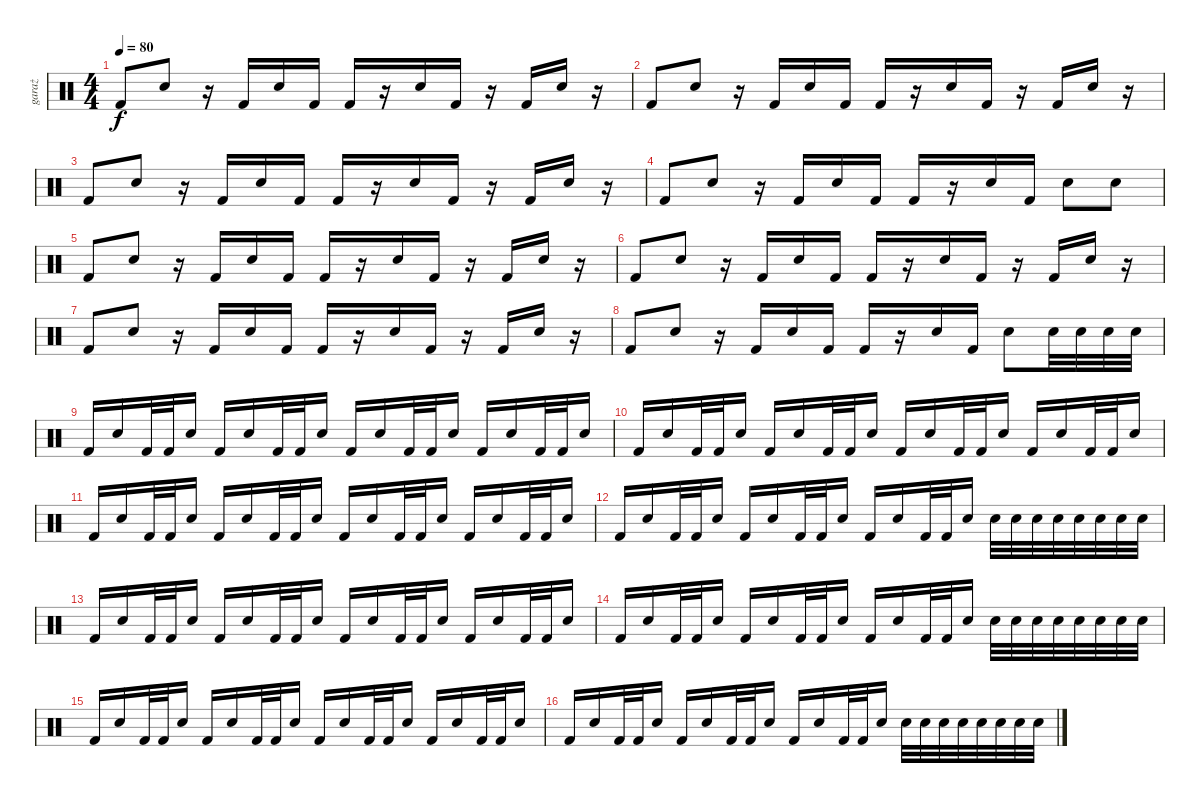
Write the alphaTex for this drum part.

\track ("garaż" "garaż") {instrument percussion}
\staff {score}
\articulation defaults
\ts (4 4)
\tempo 80
\clef neutral
\ks c "Kick (hit) 2".8{dy f} "Snare (hit) 2".8
r.16 "Kick (hit) 2".16 "Snare (hit) 2".16 "Kick (hit) 2".16 "Kick (hit) 2".16 r.16 "Snare (hit) 2".16 "Kick (hit) 2".16 r.16 "Kick (hit) 2".16 "Snare (hit) 2".16 r.16 |
"Kick (hit) 2".8 "Snare (hit) 2".8 r.16 "Kick (hit) 2".16 "Snare (hit) 2".16 "Kick (hit) 2".16 "Kick (hit) 2".16 r.16 "Snare (hit) 2".16 "Kick (hit) 2".16 r.16 "Kick (hit) 2".16 "Snare (hit) 2".16 r.16 |
"Kick (hit) 2".8 "Snare (hit) 2".8 r.16 "Kick (hit) 2".16 "Snare (hit) 2".16 "Kick (hit) 2".16 "Kick (hit) 2".16 r.16 "Snare (hit) 2".16 "Kick (hit) 2".16 r.16 "Kick (hit) 2".16 "Snare (hit) 2".16 r.16 |
"Kick (hit) 2".8 "Snare (hit) 2".8 r.16 "Kick (hit) 2".16 "Snare (hit) 2".16 "Kick (hit) 2".16 "Kick (hit) 2".16 r.16 "Snare (hit) 2".16 "Kick (hit) 2".16 "Snare (hit) 2".8 "Snare (hit) 2".8 |
"Kick (hit) 2".8 "Snare (hit) 2".8 r.16 "Kick (hit) 2".16 "Snare (hit) 2".16 "Kick (hit) 2".16 "Kick (hit) 2".16 r.16 "Snare (hit) 2".16 "Kick (hit) 2".16 r.16 "Kick (hit) 2".16 "Snare (hit) 2".16 r.16 |
"Kick (hit) 2".8 "Snare (hit) 2".8 r.16 "Kick (hit) 2".16 "Snare (hit) 2".16 "Kick (hit) 2".16 "Kick (hit) 2".16 r.16 "Snare (hit) 2".16 "Kick (hit) 2".16 r.16 "Kick (hit) 2".16 "Snare (hit) 2".16 r.16 |
"Kick (hit) 2".8 "Snare (hit) 2".8 r.16 "Kick (hit) 2".16 "Snare (hit) 2".16 "Kick (hit) 2".16 "Kick (hit) 2".16 r.16 "Snare (hit) 2".16 "Kick (hit) 2".16 r.16 "Kick (hit) 2".16 "Snare (hit) 2".16 r.16 |
"Kick (hit) 2".8 "Snare (hit) 2".8 r.16 "Kick (hit) 2".16 "Snare (hit) 2".16 "Kick (hit) 2".16 "Kick (hit) 2".16 r.16 "Snare (hit) 2".16 "Kick (hit) 2".16 "Snare (hit) 2".8 "Snare (hit) 2".32 "Snare (hit) 2".32 "Snare (hit) 2".32 "Snare (hit) 2".32 |
"Kick (hit) 2".16 "Snare (hit) 2".16 "Kick (hit) 2".32 "Kick (hit) 2".32 "Snare (hit) 2".16 "Kick (hit) 2".16 "Snare (hit) 2".16 "Kick (hit) 2".32 "Kick (hit) 2".32 "Snare (hit) 2".16 "Kick (hit) 2".16 "Snare (hit) 2".16 "Kick (hit) 2".32 "Kick (hit) 2".32 "Snare (hit) 2".16 "Kick (hit) 2".16 "Snare (hit) 2".16 "Kick (hit) 2".32 "Kick (hit) 2".32 "Snare (hit) 2".16 |
"Kick (hit) 2".16 "Snare (hit) 2".16 "Kick (hit) 2".32 "Kick (hit) 2".32 "Snare (hit) 2".16 "Kick (hit) 2".16 "Snare (hit) 2".16 "Kick (hit) 2".32 "Kick (hit) 2".32 "Snare (hit) 2".16 "Kick (hit) 2".16 "Snare (hit) 2".16 "Kick (hit) 2".32 "Kick (hit) 2".32 "Snare (hit) 2".16 "Kick (hit) 2".16 "Snare (hit) 2".16 "Kick (hit) 2".32 "Kick (hit) 2".32 "Snare (hit) 2".16 |
"Kick (hit) 2".16 "Snare (hit) 2".16 "Kick (hit) 2".32 "Kick (hit) 2".32 "Snare (hit) 2".16 "Kick (hit) 2".16 "Snare (hit) 2".16 "Kick (hit) 2".32 "Kick (hit) 2".32 "Snare (hit) 2".16 "Kick (hit) 2".16 "Snare (hit) 2".16 "Kick (hit) 2".32 "Kick (hit) 2".32 "Snare (hit) 2".16 "Kick (hit) 2".16 "Snare (hit) 2".16 "Kick (hit) 2".32 "Kick (hit) 2".32 "Snare (hit) 2".16 |
"Kick (hit) 2".16 "Snare (hit) 2".16 "Kick (hit) 2".32 "Kick (hit) 2".32 "Snare (hit) 2".16 "Kick (hit) 2".16 "Snare (hit) 2".16 "Kick (hit) 2".32 "Kick (hit) 2".32 "Snare (hit) 2".16 "Kick (hit) 2".16 "Snare (hit) 2".16 "Kick (hit) 2".32 "Kick (hit) 2".32 "Snare (hit) 2".16 "Snare (hit) 2".32 "Snare (hit) 2".32 "Snare (hit) 2".32 "Snare (hit) 2".32 "Snare (hit) 2".32 "Snare (hit) 2".32 "Snare (hit) 2".32 "Snare (hit) 2".32 |
"Kick (hit) 2".16 "Snare (hit) 2".16 "Kick (hit) 2".32 "Kick (hit) 2".32 "Snare (hit) 2".16 "Kick (hit) 2".16 "Snare (hit) 2".16 "Kick (hit) 2".32 "Kick (hit) 2".32 "Snare (hit) 2".16 "Kick (hit) 2".16 "Snare (hit) 2".16 "Kick (hit) 2".32 "Kick (hit) 2".32 "Snare (hit) 2".16 "Kick (hit) 2".16 "Snare (hit) 2".16 "Kick (hit) 2".32 "Kick (hit) 2".32 "Snare (hit) 2".16 |
"Kick (hit) 2".16 "Snare (hit) 2".16 "Kick (hit) 2".32 "Kick (hit) 2".32 "Snare (hit) 2".16 "Kick (hit) 2".16 "Snare (hit) 2".16 "Kick (hit) 2".32 "Kick (hit) 2".32 "Snare (hit) 2".16 "Kick (hit) 2".16 "Snare (hit) 2".16 "Kick (hit) 2".32 "Kick (hit) 2".32 "Snare (hit) 2".16 "Snare (hit) 2".32 "Snare (hit) 2".32 "Snare (hit) 2".32 "Snare (hit) 2".32 "Snare (hit) 2".32 "Snare (hit) 2".32 "Snare (hit) 2".32 "Snare (hit) 2".32 |
"Kick (hit) 2".16 "Snare (hit) 2".16 "Kick (hit) 2".32 "Kick (hit) 2".32 "Snare (hit) 2".16 "Kick (hit) 2".16 "Snare (hit) 2".16 "Kick (hit) 2".32 "Kick (hit) 2".32 "Snare (hit) 2".16 "Kick (hit) 2".16 "Snare (hit) 2".16 "Kick (hit) 2".32 "Kick (hit) 2".32 "Snare (hit) 2".16 "Kick (hit) 2".16 "Snare (hit) 2".16 "Kick (hit) 2".32 "Kick (hit) 2".32 "Snare (hit) 2".16 |
"Kick (hit) 2".16 "Snare (hit) 2".16 "Kick (hit) 2".32 "Kick (hit) 2".32 "Snare (hit) 2".16 "Kick (hit) 2".16 "Snare (hit) 2".16 "Kick (hit) 2".32 "Kick (hit) 2".32 "Snare (hit) 2".16 "Kick (hit) 2".16 "Snare (hit) 2".16 "Kick (hit) 2".32 "Kick (hit) 2".32 "Snare (hit) 2".16 "Snare (hit) 2".32 "Snare (hit) 2".32 "Snare (hit) 2".32 "Snare (hit) 2".32 "Snare (hit) 2".32 "Snare (hit) 2".32 "Snare (hit) 2".32 "Snare (hit) 2".32
